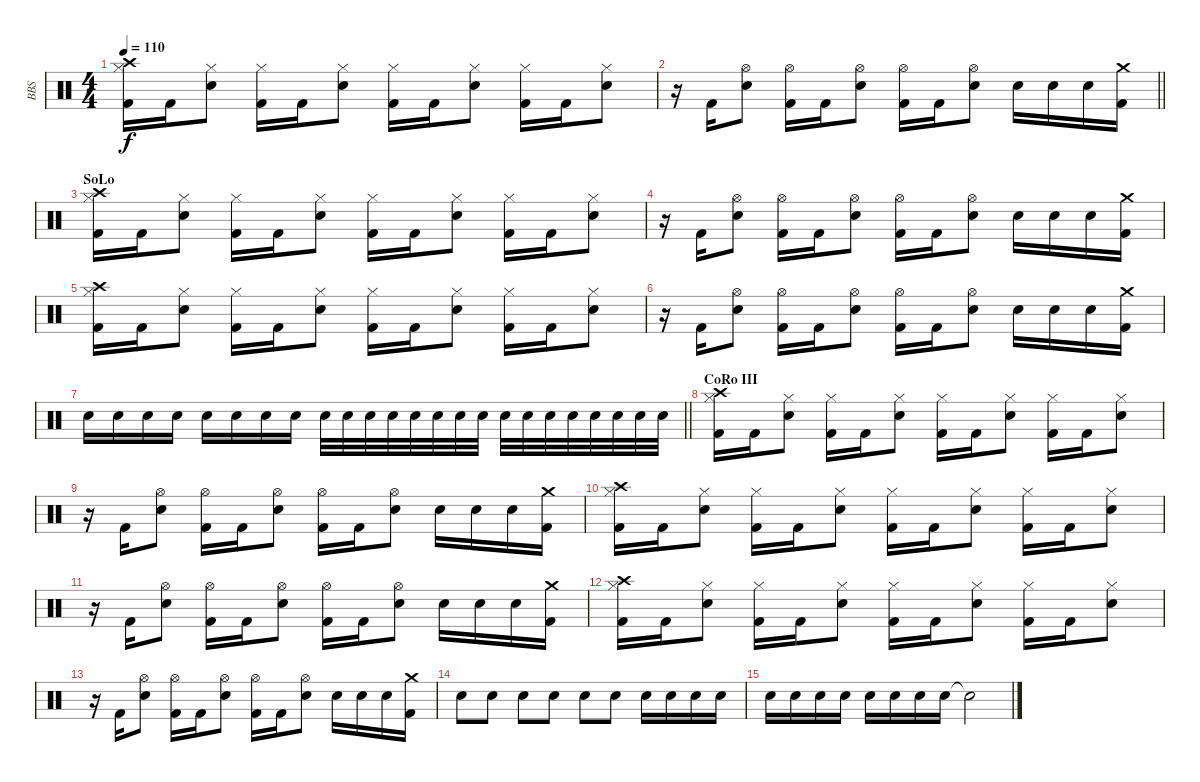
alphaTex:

\track ("BBS" "BBS") {instrument percussion}
\staff {score}
\articulation defaults
\ts (4 4)
\tempo 110
\clef neutral
\ks c
("Crash high (hit)" "Hi-Hat (closed)" "Kick (hit) 2").16{dy f} "Kick (hit) 2".16 ("Hi-Hat (closed)" "Snare (hit) 2").8 ("Hi-Hat (closed)" "Kick (hit) 2").16 "Kick (hit) 2".16 ("Hi-Hat (closed)" "Snare (hit) 2").8 ("Hi-Hat (closed)" "Kick (hit) 2").16 "Kick (hit) 2".16 ("Hi-Hat (closed)" "Snare (hit) 2").8 ("Hi-Hat (closed)" "Kick (hit) 2").16 "Kick (hit) 2".16 ("Hi-Hat (closed)" "Snare (hit) 2").8 |
\barLineRight lightlight
r.16 "Kick (hit) 2".16 ("Hi-Hat (open)" "Electric Snare (hit)").8 ("Hi-Hat (open)" "Kick (hit) 2").16 "Kick (hit) 2".16 ("Hi-Hat (open)" "Electric Snare (hit)").8 ("Hi-Hat (open)" "Kick (hit) 2").16 "Kick (hit) 2".16 ("Hi-Hat (open)" "Electric Snare (hit)").8 "Electric Snare (hit)".16 "Electric Snare (hit)".16 "Electric Snare (hit)".16 ("Crash medium (hit)" "Kick (hit) 2").16 |
\section ("" "SoLo")
("Crash high (hit)" "Hi-Hat (closed)" "Kick (hit) 2").16 "Kick (hit) 2".16 ("Hi-Hat (closed)" "Snare (hit) 2").8 ("Hi-Hat (closed)" "Kick (hit) 2").16 "Kick (hit) 2".16 ("Hi-Hat (closed)" "Snare (hit) 2").8 ("Hi-Hat (closed)" "Kick (hit) 2").16 "Kick (hit) 2".16 ("Hi-Hat (closed)" "Snare (hit) 2").8 ("Hi-Hat (closed)" "Kick (hit) 2").16 "Kick (hit) 2".16 ("Hi-Hat (closed)" "Snare (hit) 2").8 |
r.16 "Kick (hit) 2".16 ("Hi-Hat (open)" "Electric Snare (hit)").8 ("Hi-Hat (open)" "Kick (hit) 2").16 "Kick (hit) 2".16 ("Hi-Hat (open)" "Electric Snare (hit)").8 ("Hi-Hat (open)" "Kick (hit) 2").16 "Kick (hit) 2".16 ("Hi-Hat (open)" "Electric Snare (hit)").8 "Electric Snare (hit)".16 "Electric Snare (hit)".16 "Electric Snare (hit)".16 ("Crash medium (hit)" "Kick (hit) 2").16 |
("Crash high (hit)" "Hi-Hat (closed)" "Kick (hit) 2").16 "Kick (hit) 2".16 ("Hi-Hat (closed)" "Snare (hit) 2").8 ("Hi-Hat (closed)" "Kick (hit) 2").16 "Kick (hit) 2".16 ("Hi-Hat (closed)" "Snare (hit) 2").8 ("Hi-Hat (closed)" "Kick (hit) 2").16 "Kick (hit) 2".16 ("Hi-Hat (closed)" "Snare (hit) 2").8 ("Hi-Hat (closed)" "Kick (hit) 2").16 "Kick (hit) 2".16 ("Hi-Hat (closed)" "Snare (hit) 2").8 |
r.16 "Kick (hit) 2".16 ("Hi-Hat (open)" "Electric Snare (hit)").8 ("Hi-Hat (open)" "Kick (hit) 2").16 "Kick (hit) 2".16 ("Hi-Hat (open)" "Electric Snare (hit)").8 ("Hi-Hat (open)" "Kick (hit) 2").16 "Kick (hit) 2".16 ("Hi-Hat (open)" "Electric Snare (hit)").8 "Electric Snare (hit)".16 "Electric Snare (hit)".16 "Electric Snare (hit)".16 ("Crash medium (hit)" "Kick (hit) 2").16 |
\barLineRight lightlight "Snare (hit) 2".16 "Snare (hit) 2".16 "Snare (hit) 2".16 "Snare (hit) 2".16 "Snare (hit) 2".16 "Snare (hit) 2".16 "Snare (hit) 2".16 "Snare (hit) 2".16 "Snare (hit) 2".32 "Snare (hit) 2".32 "Snare (hit) 2".32 "Snare (hit) 2".32 "Snare (hit) 2".32 "Snare (hit) 2".32 "Snare (hit) 2".32 "Snare (hit) 2".32 "Snare (hit) 2".32 "Snare (hit) 2".32 "Snare (hit) 2".32 "Snare (hit) 2".32 "Snare (hit) 2".32 "Snare (hit) 2".32 "Snare (hit) 2".32 "Snare (hit) 2".32
|
\section ("" "CoRo III")
("Crash high (hit)" "Hi-Hat (closed)" "Kick (hit) 2").16 "Kick (hit) 2".16 ("Hi-Hat (closed)" "Snare (hit) 2").8 ("Hi-Hat (closed)" "Kick (hit) 2").16 "Kick (hit) 2".16 ("Hi-Hat (closed)" "Snare (hit) 2").8 ("Hi-Hat (closed)" "Kick (hit) 2").16 "Kick (hit) 2".16 ("Hi-Hat (closed)" "Snare (hit) 2").8 ("Hi-Hat (closed)" "Kick (hit) 2").16 "Kick (hit) 2".16 ("Hi-Hat (closed)" "Snare (hit) 2").8 |
r.16 "Kick (hit) 2".16 ("Hi-Hat (open)" "Electric Snare (hit)").8 ("Hi-Hat (open)" "Kick (hit) 2").16 "Kick (hit) 2".16 ("Hi-Hat (open)" "Electric Snare (hit)").8 ("Hi-Hat (open)" "Kick (hit) 2").16 "Kick (hit) 2".16 ("Hi-Hat (open)" "Electric Snare (hit)").8 "Electric Snare (hit)".16 "Electric Snare (hit)".16 "Electric Snare (hit)".16 ("Crash medium (hit)" "Kick (hit) 2").16 |
("Crash high (hit)" "Hi-Hat (closed)" "Kick (hit) 2").16 "Kick (hit) 2".16 ("Hi-Hat (closed)" "Snare (hit) 2").8 ("Hi-Hat (closed)" "Kick (hit) 2").16 "Kick (hit) 2".16 ("Hi-Hat (closed)" "Snare (hit) 2").8 ("Hi-Hat (closed)" "Kick (hit) 2").16 "Kick (hit) 2".16 ("Hi-Hat (closed)" "Snare (hit) 2").8 ("Hi-Hat (closed)" "Kick (hit) 2").16 "Kick (hit) 2".16 ("Hi-Hat (closed)" "Snare (hit) 2").8 |
r.16 "Kick (hit) 2".16 ("Hi-Hat (open)" "Electric Snare (hit)").8 ("Hi-Hat (open)" "Kick (hit) 2").16 "Kick (hit) 2".16 ("Hi-Hat (open)" "Electric Snare (hit)").8 ("Hi-Hat (open)" "Kick (hit) 2").16 "Kick (hit) 2".16 ("Hi-Hat (open)" "Electric Snare (hit)").8 "Electric Snare (hit)".16 "Electric Snare (hit)".16 "Electric Snare (hit)".16 ("Crash medium (hit)" "Kick (hit) 2").16 |
("Crash high (hit)" "Hi-Hat (closed)" "Kick (hit) 2").16 "Kick (hit) 2".16 ("Hi-Hat (closed)" "Snare (hit) 2").8 ("Hi-Hat (closed)" "Kick (hit) 2").16 "Kick (hit) 2".16 ("Hi-Hat (closed)" "Snare (hit) 2").8 ("Hi-Hat (closed)" "Kick (hit) 2").16 "Kick (hit) 2".16 ("Hi-Hat (closed)" "Snare (hit) 2").8 ("Hi-Hat (closed)" "Kick (hit) 2").16 "Kick (hit) 2".16 ("Hi-Hat (closed)" "Snare (hit) 2").8 |
r.16 "Kick (hit) 2".16 ("Hi-Hat (open)" "Electric Snare (hit)").8 ("Hi-Hat (open)" "Kick (hit) 2").16 "Kick (hit) 2".16 ("Hi-Hat (open)" "Electric Snare (hit)").8 ("Hi-Hat (open)" "Kick (hit) 2").16 "Kick (hit) 2".16 ("Hi-Hat (open)" "Electric Snare (hit)").8 "Electric Snare (hit)".16 "Electric Snare (hit)".16 "Electric Snare (hit)".16 ("Crash medium (hit)" "Kick (hit) 2").16 |
"Snare (hit) 2".8 "Snare (hit) 2".8 "Snare (hit) 2".8 "Snare (hit) 2".8 "Snare (hit) 2".8 "Snare (hit) 2".8 "Snare (hit) 2".16 "Snare (hit) 2".16 "Snare (hit) 2".16 "Snare (hit) 2".16 |
"Snare (hit) 2".16 "Snare (hit) 2".16 "Snare (hit) 2".16 "Snare (hit) 2".16 "Snare (hit) 2".16 "Snare (hit) 2".16 "Snare (hit) 2".16 "Snare (hit) 2".16 "Snare (hit)"{t}.2
